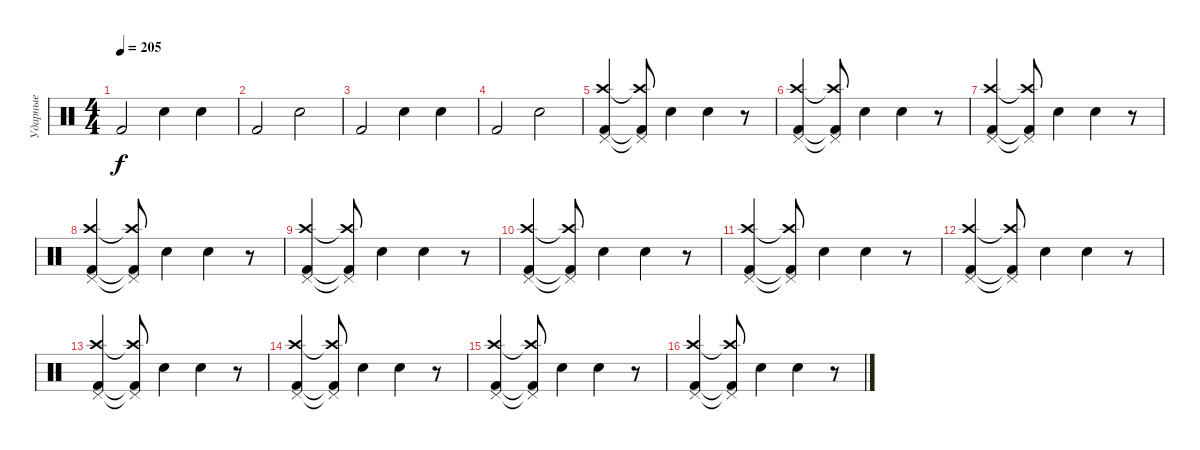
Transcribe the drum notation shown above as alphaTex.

\track ("Ударные" "Ударные") {instrument percussion}
\staff {score}
\articulation defaults
\ts (4 4)
\tempo 205
\clef neutral
\ks c "Kick (hit) 2".2{dy f} "Snare (hit) 2".4 "Snare (hit) 2".4
|
"Kick (hit) 2".2 "Snare (hit) 2".2 |
"Kick (hit) 2".2 "Snare (hit) 2".4 "Snare (hit) 2".4 |
"Kick (hit) 2".2 "Snare (hit) 2".2 |
("Crash high (hit)" "Pedal Hi-Hat (hit)" "Kick (hit) 2").4 ("Crash high (hit)"{t} "Pedal Hi-Hat (hit)"{t} "Kick (hit) 2"{t}).8 "Snare (hit) 2".4 "Snare (hit) 2".4 r.8 |
("Crash high (hit)" "Pedal Hi-Hat (hit)" "Kick (hit) 2").4 ("Crash high (hit)"{t} "Pedal Hi-Hat (hit)"{t} "Kick (hit) 2"{t}).8 "Snare (hit) 2".4 "Snare (hit) 2".4 r.8 |
("Crash high (hit)" "Pedal Hi-Hat (hit)" "Kick (hit) 2").4 ("Crash high (hit)"{t} "Pedal Hi-Hat (hit)"{t} "Kick (hit) 2"{t}).8 "Snare (hit) 2".4 "Snare (hit) 2".4 r.8 |
("Crash high (hit)" "Pedal Hi-Hat (hit)" "Kick (hit) 2").4 ("Crash high (hit)"{t} "Pedal Hi-Hat (hit)"{t} "Kick (hit) 2"{t}).8 "Snare (hit) 2".4 "Snare (hit) 2".4 r.8 |
("Crash high (hit)" "Pedal Hi-Hat (hit)" "Kick (hit) 2").4 ("Crash high (hit)"{t} "Pedal Hi-Hat (hit)"{t} "Kick (hit) 2"{t}).8 "Snare (hit) 2".4 "Snare (hit) 2".4 r.8 |
("Crash high (hit)" "Pedal Hi-Hat (hit)" "Kick (hit) 2").4 ("Crash high (hit)"{t} "Pedal Hi-Hat (hit)"{t} "Kick (hit) 2"{t}).8 "Snare (hit) 2".4 "Snare (hit) 2".4 r.8 |
("Crash high (hit)" "Pedal Hi-Hat (hit)" "Kick (hit) 2").4 ("Crash high (hit)"{t} "Pedal Hi-Hat (hit)"{t} "Kick (hit) 2"{t}).8 "Snare (hit) 2".4 "Snare (hit) 2".4 r.8 |
("Crash high (hit)" "Pedal Hi-Hat (hit)" "Kick (hit) 2").4 ("Crash high (hit)"{t} "Pedal Hi-Hat (hit)"{t} "Kick (hit) 2"{t}).8 "Snare (hit) 2".4 "Snare (hit) 2".4 r.8 |
("Crash high (hit)" "Pedal Hi-Hat (hit)" "Kick (hit) 2").4 ("Crash high (hit)"{t} "Pedal Hi-Hat (hit)"{t} "Kick (hit) 2"{t}).8 "Snare (hit) 2".4 "Snare (hit) 2".4 r.8 |
("Crash high (hit)" "Pedal Hi-Hat (hit)" "Kick (hit) 2").4 ("Crash high (hit)"{t} "Pedal Hi-Hat (hit)"{t} "Kick (hit) 2"{t}).8 "Snare (hit) 2".4 "Snare (hit) 2".4 r.8 |
("Crash high (hit)" "Pedal Hi-Hat (hit)" "Kick (hit) 2").4 ("Crash high (hit)"{t} "Pedal Hi-Hat (hit)"{t} "Kick (hit) 2"{t}).8 "Snare (hit) 2".4 "Snare (hit) 2".4 r.8 |
("Crash high (hit)" "Pedal Hi-Hat (hit)" "Kick (hit) 2").4 ("Crash high (hit)"{t} "Pedal Hi-Hat (hit)"{t} "Kick (hit) 2"{t}).8 "Snare (hit) 2".4 "Snare (hit) 2".4 r.8
